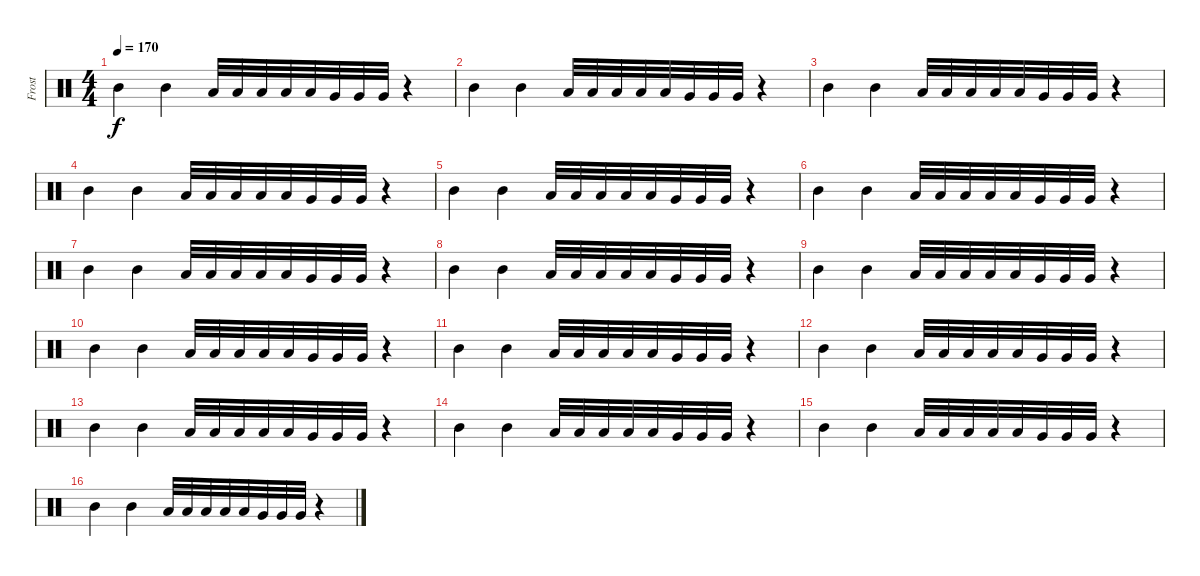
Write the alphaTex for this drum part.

\track ("Frost" "Frost") {instrument percussion}
\staff {score}
\articulation defaults
\ts (4 4)
\tempo 170
\clef neutral
\ks c "Mid Tom (hit)".4{dy f} "Mid Tom (hit)".4 "Low Tom (hit)".32 "Low Tom (hit)".32 "Low Tom (hit)".32 "Low Tom (hit)".32 "Low Tom (hit)".32 "Very Low Tom (hit)".32 "Very Low Tom (hit)".32 "Very Low Tom (hit)".32
r.4 |
"Mid Tom (hit)".4 "Mid Tom (hit)".4 "Low Tom (hit)".32 "Low Tom (hit)".32 "Low Tom (hit)".32 "Low Tom (hit)".32 "Low Tom (hit)".32 "Very Low Tom (hit)".32 "Very Low Tom (hit)".32 "Very Low Tom (hit)".32 r.4 |
"Mid Tom (hit)".4 "Mid Tom (hit)".4 "Low Tom (hit)".32 "Low Tom (hit)".32 "Low Tom (hit)".32 "Low Tom (hit)".32 "Low Tom (hit)".32 "Very Low Tom (hit)".32 "Very Low Tom (hit)".32 "Very Low Tom (hit)".32 r.4 |
"Mid Tom (hit)".4 "Mid Tom (hit)".4 "Low Tom (hit)".32 "Low Tom (hit)".32 "Low Tom (hit)".32 "Low Tom (hit)".32 "Low Tom (hit)".32 "Very Low Tom (hit)".32 "Very Low Tom (hit)".32 "Very Low Tom (hit)".32 r.4 |
"Mid Tom (hit)".4 "Mid Tom (hit)".4 "Low Tom (hit)".32 "Low Tom (hit)".32 "Low Tom (hit)".32 "Low Tom (hit)".32 "Low Tom (hit)".32 "Very Low Tom (hit)".32 "Very Low Tom (hit)".32 "Very Low Tom (hit)".32 r.4 |
"Mid Tom (hit)".4 "Mid Tom (hit)".4 "Low Tom (hit)".32 "Low Tom (hit)".32 "Low Tom (hit)".32 "Low Tom (hit)".32 "Low Tom (hit)".32 "Very Low Tom (hit)".32 "Very Low Tom (hit)".32 "Very Low Tom (hit)".32 r.4 |
"Mid Tom (hit)".4 "Mid Tom (hit)".4 "Low Tom (hit)".32 "Low Tom (hit)".32 "Low Tom (hit)".32 "Low Tom (hit)".32 "Low Tom (hit)".32 "Very Low Tom (hit)".32 "Very Low Tom (hit)".32 "Very Low Tom (hit)".32 r.4 |
"Mid Tom (hit)".4 "Mid Tom (hit)".4 "Low Tom (hit)".32 "Low Tom (hit)".32 "Low Tom (hit)".32 "Low Tom (hit)".32 "Low Tom (hit)".32 "Very Low Tom (hit)".32 "Very Low Tom (hit)".32 "Very Low Tom (hit)".32 r.4 |
"Mid Tom (hit)".4 "Mid Tom (hit)".4 "Low Tom (hit)".32 "Low Tom (hit)".32 "Low Tom (hit)".32 "Low Tom (hit)".32 "Low Tom (hit)".32 "Very Low Tom (hit)".32 "Very Low Tom (hit)".32 "Very Low Tom (hit)".32 r.4 |
"Mid Tom (hit)".4 "Mid Tom (hit)".4 "Low Tom (hit)".32 "Low Tom (hit)".32 "Low Tom (hit)".32 "Low Tom (hit)".32 "Low Tom (hit)".32 "Very Low Tom (hit)".32 "Very Low Tom (hit)".32 "Very Low Tom (hit)".32 r.4 |
"Mid Tom (hit)".4 "Mid Tom (hit)".4 "Low Tom (hit)".32 "Low Tom (hit)".32 "Low Tom (hit)".32 "Low Tom (hit)".32 "Low Tom (hit)".32 "Very Low Tom (hit)".32 "Very Low Tom (hit)".32 "Very Low Tom (hit)".32 r.4 |
"Mid Tom (hit)".4 "Mid Tom (hit)".4 "Low Tom (hit)".32 "Low Tom (hit)".32 "Low Tom (hit)".32 "Low Tom (hit)".32 "Low Tom (hit)".32 "Very Low Tom (hit)".32 "Very Low Tom (hit)".32 "Very Low Tom (hit)".32 r.4 |
"Mid Tom (hit)".4 "Mid Tom (hit)".4 "Low Tom (hit)".32 "Low Tom (hit)".32 "Low Tom (hit)".32 "Low Tom (hit)".32 "Low Tom (hit)".32 "Very Low Tom (hit)".32 "Very Low Tom (hit)".32 "Very Low Tom (hit)".32 r.4 |
"Mid Tom (hit)".4 "Mid Tom (hit)".4 "Low Tom (hit)".32 "Low Tom (hit)".32 "Low Tom (hit)".32 "Low Tom (hit)".32 "Low Tom (hit)".32 "Very Low Tom (hit)".32 "Very Low Tom (hit)".32 "Very Low Tom (hit)".32 r.4 |
"Mid Tom (hit)".4 "Mid Tom (hit)".4 "Low Tom (hit)".32 "Low Tom (hit)".32 "Low Tom (hit)".32 "Low Tom (hit)".32 "Low Tom (hit)".32 "Very Low Tom (hit)".32 "Very Low Tom (hit)".32 "Very Low Tom (hit)".32 r.4 |
"Mid Tom (hit)".4 "Mid Tom (hit)".4 "Low Tom (hit)".32 "Low Tom (hit)".32 "Low Tom (hit)".32 "Low Tom (hit)".32 "Low Tom (hit)".32 "Very Low Tom (hit)".32 "Very Low Tom (hit)".32 "Very Low Tom (hit)".32 r.4
